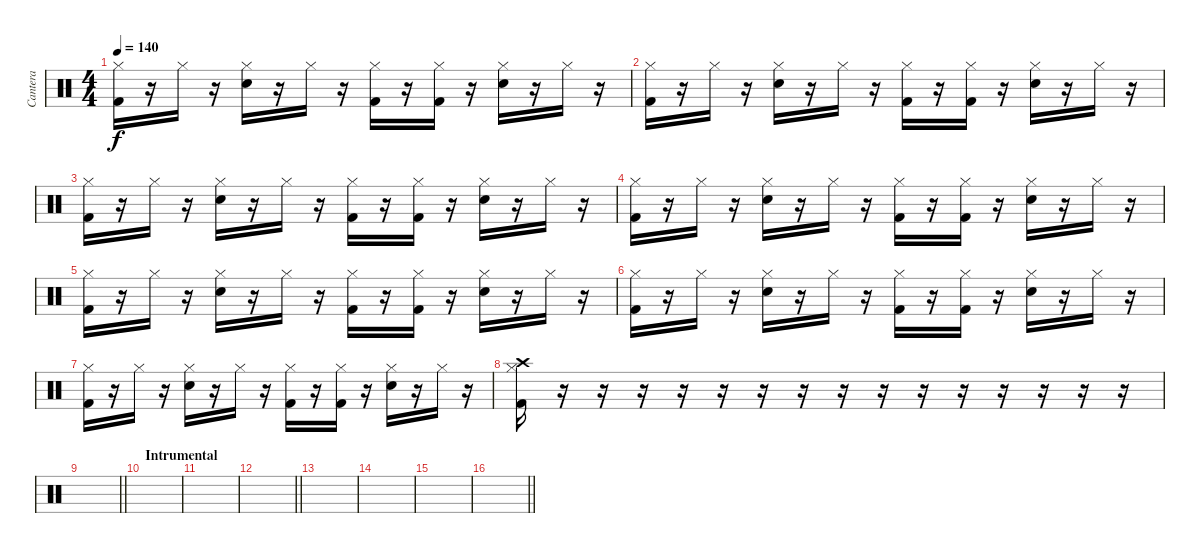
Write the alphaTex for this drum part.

\track ("Cantera" "Cantera") {instrument percussion}
\staff {score}
\articulation defaults
\ts (4 4)
\tempo 140
\clef neutral
\ks c
("Hi-Hat (closed)" "Kick (hit) 2").16{dy f} r.16 "Hi-Hat (closed)".16 r.16 ("Hi-Hat (closed)" "Snare (hit) 2").16 r.16 "Hi-Hat (closed)".16 r.16 ("Hi-Hat (closed)" "Kick (hit) 2").16 r.16 ("Hi-Hat (closed)" "Kick (hit) 2").16 r.16 ("Hi-Hat (closed)" "Snare (hit) 2").16 r.16 "Hi-Hat (closed)".16 r.16 |
("Hi-Hat (closed)" "Kick (hit) 2").16 r.16 "Hi-Hat (closed)".16 r.16 ("Hi-Hat (closed)" "Snare (hit) 2").16 r.16 "Hi-Hat (closed)".16 r.16 ("Hi-Hat (closed)" "Kick (hit) 2").16 r.16 ("Hi-Hat (closed)" "Kick (hit) 2").16 r.16 ("Hi-Hat (closed)" "Snare (hit) 2").16 r.16 "Hi-Hat (closed)".16 r.16 |
("Hi-Hat (closed)" "Kick (hit) 2").16 r.16 "Hi-Hat (closed)".16 r.16 ("Hi-Hat (closed)" "Snare (hit) 2").16 r.16 "Hi-Hat (closed)".16 r.16 ("Hi-Hat (closed)" "Kick (hit) 2").16 r.16 ("Hi-Hat (closed)" "Kick (hit) 2").16 r.16 ("Hi-Hat (closed)" "Snare (hit) 2").16 r.16 "Hi-Hat (closed)".16 r.16 |
("Hi-Hat (closed)" "Kick (hit) 2").16 r.16 "Hi-Hat (closed)".16 r.16 ("Hi-Hat (closed)" "Snare (hit) 2").16 r.16 "Hi-Hat (closed)".16 r.16 ("Hi-Hat (closed)" "Kick (hit) 2").16 r.16 ("Hi-Hat (closed)" "Kick (hit) 2").16 r.16 ("Hi-Hat (closed)" "Snare (hit) 2").16 r.16 "Hi-Hat (closed)".16 r.16 |
("Hi-Hat (closed)" "Kick (hit) 2").16 r.16 "Hi-Hat (closed)".16 r.16 ("Hi-Hat (closed)" "Snare (hit) 2").16 r.16 "Hi-Hat (closed)".16 r.16 ("Hi-Hat (closed)" "Kick (hit) 2").16 r.16 ("Hi-Hat (closed)" "Kick (hit) 2").16 r.16 ("Hi-Hat (closed)" "Snare (hit) 2").16 r.16 "Hi-Hat (closed)".16 r.16 |
("Hi-Hat (closed)" "Kick (hit) 2").16 r.16 "Hi-Hat (closed)".16 r.16 ("Hi-Hat (closed)" "Snare (hit) 2").16 r.16 "Hi-Hat (closed)".16 r.16 ("Hi-Hat (closed)" "Kick (hit) 2").16 r.16 ("Hi-Hat (closed)" "Kick (hit) 2").16 r.16 ("Hi-Hat (closed)" "Snare (hit) 2").16 r.16 "Hi-Hat (closed)".16 r.16 |
("Hi-Hat (closed)" "Kick (hit) 2").16 r.16 "Hi-Hat (closed)".16 r.16 ("Hi-Hat (closed)" "Snare (hit) 2").16 r.16 "Hi-Hat (closed)".16 r.16 ("Hi-Hat (closed)" "Kick (hit) 2").16 r.16 ("Hi-Hat (closed)" "Kick (hit) 2").16 r.16 ("Hi-Hat (closed)" "Snare (hit) 2").16 r.16 "Hi-Hat (closed)".16 r.16 |
("Crash high (hit)" "Hi-Hat (closed)" "Kick (hit) 2").16 r.16 r.16 r.16 r.16 r.16 r.16 r.16 r.16 r.16 r.16 r.16 r.16 r.16 r.16 r.16 |
\barLineRight lightlight
|
\section ("" "Intrumental")
|
|
\barLineRight lightlight
|
|
|
|
\barLineRight lightlight
